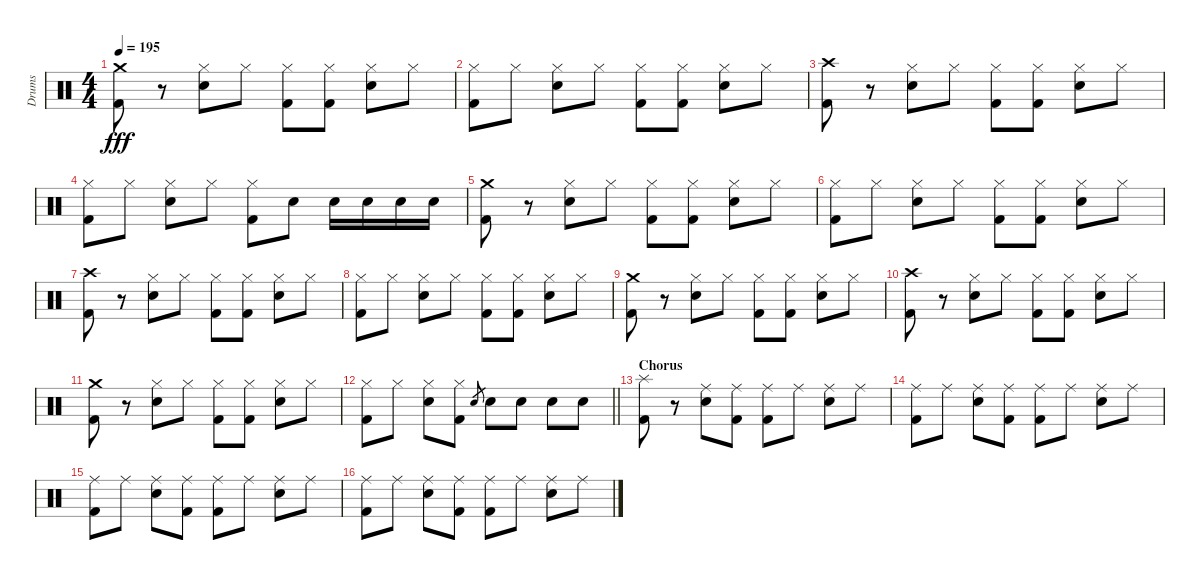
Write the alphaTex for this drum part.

\track ("Drums" "Drums") {instrument percussion}
\staff {score}
\articulation defaults
\ts (4 4)
\tempo 195
\clef neutral
\ks c
("Crash medium (hit)" "Kick (hit) 2").8{dy fff} r.8 ("Hi-Hat (closed)" "Snare (hit) 2").8 "Hi-Hat (closed)".8 ("Hi-Hat (closed)" "Kick (hit) 2").8 ("Hi-Hat (closed)" "Kick (hit) 2").8 ("Hi-Hat (closed)" "Snare (hit) 2").8 "Hi-Hat (closed)".8 |
("Hi-Hat (closed)" "Kick (hit) 2").8 "Hi-Hat (closed)".8 ("Hi-Hat (closed)" "Snare (hit) 2").8 "Hi-Hat (closed)".8 ("Hi-Hat (closed)" "Kick (hit) 2").8 ("Hi-Hat (closed)" "Kick (hit) 2").8 ("Hi-Hat (closed)" "Snare (hit) 2").8 "Hi-Hat (closed)".8 |
("Crash high (hit)" "Kick (hit) 2").8 r.8 ("Hi-Hat (closed)" "Snare (hit) 2").8 "Hi-Hat (closed)".8 ("Hi-Hat (closed)" "Kick (hit) 2").8 ("Hi-Hat (closed)" "Kick (hit) 2").8 ("Hi-Hat (closed)" "Snare (hit) 2").8 "Hi-Hat (closed)".8 |
("Hi-Hat (closed)" "Kick (hit) 2").8 "Hi-Hat (closed)".8 ("Hi-Hat (closed)" "Snare (hit) 2").8 "Hi-Hat (closed)".8 ("Hi-Hat (closed)" "Kick (hit) 2").8 "Snare (hit) 2".8 "Snare (hit) 2".16 "Snare (hit) 2".16 "Snare (hit) 2".16 "Snare (hit) 2".16 |
("Crash medium (hit)" "Kick (hit) 2").8 r.8 ("Hi-Hat (closed)" "Snare (hit) 2").8 "Hi-Hat (closed)".8 ("Hi-Hat (closed)" "Kick (hit) 2").8 ("Hi-Hat (closed)" "Kick (hit) 2").8 ("Hi-Hat (closed)" "Snare (hit) 2").8 "Hi-Hat (closed)".8 |
("Hi-Hat (closed)" "Kick (hit) 2").8 "Hi-Hat (closed)".8 ("Hi-Hat (closed)" "Snare (hit) 2").8 "Hi-Hat (closed)".8 ("Hi-Hat (closed)" "Kick (hit) 2").8 ("Hi-Hat (closed)" "Kick (hit) 2").8 ("Hi-Hat (closed)" "Snare (hit) 2").8 "Hi-Hat (closed)".8 |
("Crash high (hit)" "Kick (hit) 2").8 r.8 ("Hi-Hat (closed)" "Snare (hit) 2").8 "Hi-Hat (closed)".8 ("Hi-Hat (closed)" "Kick (hit) 2").8 ("Hi-Hat (closed)" "Kick (hit) 2").8 ("Hi-Hat (closed)" "Snare (hit) 2").8 "Hi-Hat (closed)".8 |
("Hi-Hat (closed)" "Kick (hit) 2").8 "Hi-Hat (closed)".8 ("Hi-Hat (closed)" "Snare (hit) 2").8 "Hi-Hat (closed)".8 ("Hi-Hat (closed)" "Kick (hit) 2").8 ("Hi-Hat (closed)" "Kick (hit) 2").8 ("Hi-Hat (closed)" "Snare (hit) 2").8 "Hi-Hat (closed)".8 |
("Crash medium (hit)" "Kick (hit) 2").8 r.8 ("Hi-Hat (closed)" "Snare (hit) 2").8 "Hi-Hat (closed)".8 ("Hi-Hat (closed)" "Kick (hit) 2").8 ("Hi-Hat (closed)" "Kick (hit) 2").8 ("Hi-Hat (closed)" "Snare (hit) 2").8 "Hi-Hat (closed)".8 |
("Crash high (hit)" "Kick (hit) 2").8 r.8 ("Hi-Hat (closed)" "Snare (hit) 2").8 "Hi-Hat (closed)".8 ("Hi-Hat (closed)" "Kick (hit) 2").8 ("Hi-Hat (closed)" "Kick (hit) 2").8 ("Hi-Hat (closed)" "Snare (hit) 2").8 "Hi-Hat (closed)".8 |
("Crash medium (hit)" "Kick (hit) 2").8 r.8 ("Hi-Hat (closed)" "Snare (hit) 2").8 "Hi-Hat (closed)".8 ("Hi-Hat (closed)" "Kick (hit) 2").8 ("Hi-Hat (closed)" "Kick (hit) 2").8 ("Hi-Hat (closed)" "Snare (hit) 2").8 "Hi-Hat (closed)".8 |
\barLineRight lightlight
("Hi-Hat (closed)" "Kick (hit) 2").8 "Hi-Hat (closed)".8 ("Hi-Hat (closed)" "Snare (hit) 2").8 ("Hi-Hat (closed)" "Kick (hit) 2").8 "Snare (hit) 2".8{gr} "Snare (hit) 2".8 "Snare (hit) 2".8 "Snare (hit) 2".8 "Snare (hit) 2".8 |
\section ("" "Chorus")
("Splash (hit)" "Kick (hit) 2").8 r.8 ("Ride (middle)" "Snare (hit) 2").8 ("Ride (middle)" "Kick (hit) 2").8 ("Ride (middle)" "Kick (hit) 2").8 "Ride (middle)".8 ("Ride (middle)" "Snare (hit) 2").8 "Ride (middle)".8 |
("Ride (middle)" "Kick (hit) 2").8 "Ride (middle)".8 ("Ride (middle)" "Snare (hit) 2").8 ("Ride (middle)" "Kick (hit) 2").8 ("Ride (middle)" "Kick (hit) 2").8 "Ride (middle)".8 ("Ride (middle)" "Snare (hit) 2").8 "Ride (middle)".8 |
("Ride (middle)" "Kick (hit) 2").8 "Ride (middle)".8 ("Ride (middle)" "Snare (hit) 2").8 ("Ride (middle)" "Kick (hit) 2").8 ("Ride (middle)" "Kick (hit) 2").8 "Ride (middle)".8 ("Ride (middle)" "Snare (hit) 2").8 "Ride (middle)".8 |
("Ride (middle)" "Kick (hit) 2").8 "Ride (middle)".8 ("Ride (middle)" "Snare (hit) 2").8 ("Ride (middle)" "Kick (hit) 2").8 ("Ride (middle)" "Kick (hit) 2").8 "Ride (middle)".8 ("Ride (middle)" "Snare (hit) 2").8 "Ride (middle)".8
